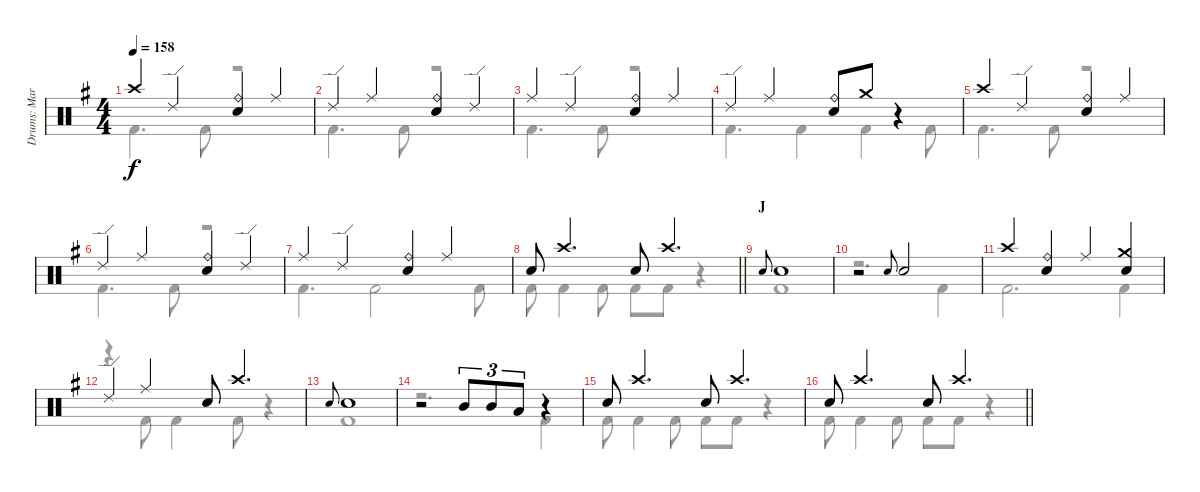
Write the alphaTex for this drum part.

\track ("Drums: Mark" "Drums: Mar") {instrument percussion}
\staff {score}
\articulation defaults
\voice
\ts (4 4)
\tempo 158
\clef neutral
\ks g "Crash high (hit)".4{dy f} "Ride (edge) 2".4
("Ride (bell)" "Snare (hit) 2").4 "Ride (middle)".4 |
"Ride (edge) 2".4 "Ride (middle)".4 ("Ride (bell)" "Snare (hit) 2").4 "Ride (edge) 2".4 |
"Ride (middle)".4 "Ride (edge) 2".4 ("Ride (bell)" "Snare (hit) 2").4 "Ride (middle)".4 |
"Ride (edge) 2".4 "Ride (middle)".4 ("Ride (bell)" "Snare (hit) 2").8 "Crash medium (hit)".8 r.4 |
"Crash high (hit)".4 "Ride (edge) 2".4 ("Ride (bell)" "Snare (hit) 2").4 "Ride (middle)".4 |
"Ride (edge) 2".4 "Ride (middle)".4 ("Ride (bell)" "Snare (hit) 2").4 "Ride (edge) 2".4 |
"Ride (middle)".4 "Ride (edge) 2".4 ("Ride (bell)" "Snare (hit) 2").4 "Ride (middle)".4 |
\barLineRight lightlight "Snare (hit) 2".8 "Crash high (hit)".4{d} "Snare (hit) 2".8 "Crash high (hit)".4{d}
|
\section ("" "J")
"Electric Snare (hit)".8{gr onbeat} "Snare (hit) 2".1 |
r.2 "Electric Snare (hit)".8{gr onbeat} "Snare (hit) 2".2 |
"Crash high (hit)".4 ("Ride (bell)" "Snare (hit) 2").4 "Ride (middle)".4 ("Crash medium (hit)" "Snare (hit) 2").4 |
"Ride (edge) 2".4 "Ride (middle)".4 "Snare (hit) 2".8 "Crash high (hit)".4{d} |
"Electric Snare (hit)".8{gr onbeat} "Snare (hit) 2".1 |
r.2 "Mid Tom (hit)".8{tu (3 2)} "Mid Tom (hit)".8{tu (3 2)} "Low Tom (hit)".8{tu (3 2)} r.4 |
"Snare (hit) 2".8 "Crash high (hit)".4{d} "Snare (hit) 2".8 "Crash high (hit)".4{d} |
\barLineRight lightlight "Snare (hit) 2".8 "Crash high (hit)".4{d} "Snare (hit) 2".8 "Crash high (hit)".4{d}
\voice
\clef neutral
\ottava regular
\simile none
\ks g "Kick (hit) 2".4{d dy f} "Kick (hit) 2".8
r.2 |
"Kick (hit) 2".4{d} "Kick (hit) 2".8 r.2 |
"Kick (hit) 2".4{d} "Kick (hit) 2".8 r.2 |
"Kick (hit) 2".4{d} "Kick (hit) 2".4 "Kick (hit) 2".4 "Kick (hit) 2".8 |
"Kick (hit) 2".4{d} "Kick (hit) 2".8 r.2 |
"Kick (hit) 2".4{d} "Kick (hit) 2".8 r.2 |
"Kick (hit) 2".4{d} "Kick (hit) 2".2 "Kick (hit) 2".8 |
\barLineRight lightlight "Kick (hit) 2".8 "Kick (hit) 2".4 "Kick (hit) 2".8 "Kick (hit) 2".8 "Kick (hit) 2".8
r.4 |
"Kick (hit) 2".1 |
r.2{d} "Kick (hit) 2".4 |
"Kick (hit) 2".2{d} "Kick (hit) 2".4 |
r.4 "Kick (hit) 2".8 "Kick (hit) 2".4 "Kick (hit) 2".8 r.4 |
"Kick (hit) 2".1 |
r.2{d} "Kick (hit) 2".4 |
"Kick (hit) 2".8 "Kick (hit) 2".4 "Kick (hit) 2".8 "Kick (hit) 2".8 "Kick (hit) 2".8 r.4 |
\barLineRight lightlight "Kick (hit) 2".8 "Kick (hit) 2".4 "Kick (hit) 2".8 "Kick (hit) 2".8 "Kick (hit) 2".8
r.4
